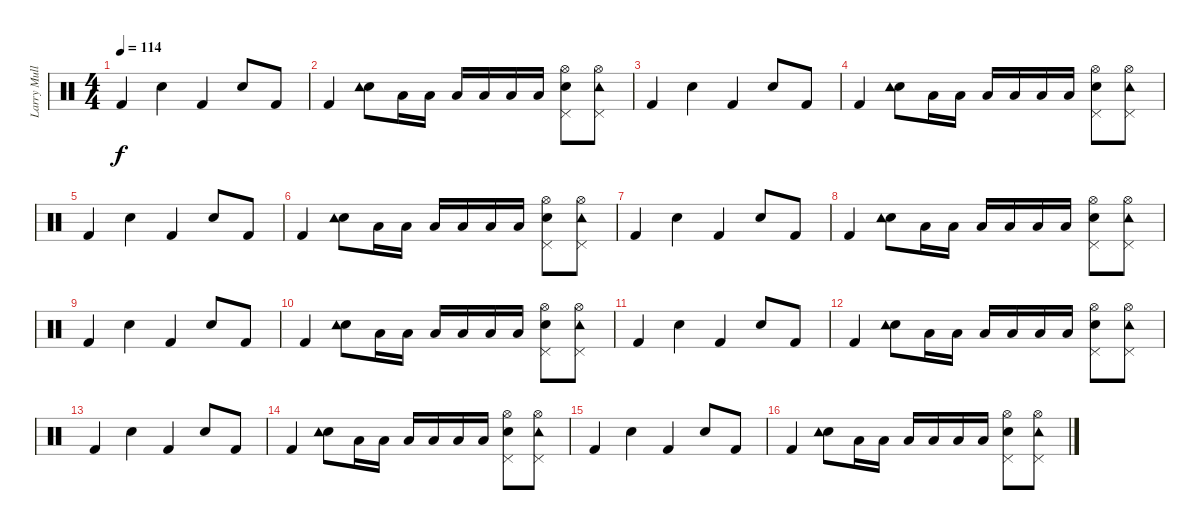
\track ("Larry Mullen Jr Drums" "Larry Mull") {instrument percussion}
\staff {score}
\articulation defaults
\ts (4 4)
\tempo 114
\clef neutral
\ks c "Kick (hit) 2".4{dy f} "Snare (hit) 2".4 "Kick (hit) 2".4 "Snare (hit) 2".8 "Kick (hit) 2".8
|
"Kick (hit) 2".4 ("Snare (hit) 2" "Tambourine (hit)").8 "Low Tom (hit)".16 "Low Tom (hit)".16 "Low Tom (hit)".16 "Low Tom (hit)".16 "Low Tom (hit)".16 "Low Tom (hit)".16 ("Snare (hit) 2" "Pedal Hi-Hat (hit)" "Hi-Hat (open)").8 ("Hi-Hat (open)" "Pedal Hi-Hat (hit)" "Tambourine (hit)").8 |
"Kick (hit) 2".4 "Snare (hit) 2".4 "Kick (hit) 2".4 "Snare (hit) 2".8 "Kick (hit) 2".8 |
"Kick (hit) 2".4 ("Snare (hit) 2" "Tambourine (hit)").8 "Low Tom (hit)".16 "Low Tom (hit)".16 "Low Tom (hit)".16 "Low Tom (hit)".16 "Low Tom (hit)".16 "Low Tom (hit)".16 ("Snare (hit) 2" "Pedal Hi-Hat (hit)" "Hi-Hat (open)").8 ("Hi-Hat (open)" "Pedal Hi-Hat (hit)" "Tambourine (hit)").8 |
"Kick (hit) 2".4 "Snare (hit) 2".4 "Kick (hit) 2".4 "Snare (hit) 2".8 "Kick (hit) 2".8 |
"Kick (hit) 2".4 ("Snare (hit) 2" "Tambourine (hit)").8 "Low Tom (hit)".16 "Low Tom (hit)".16 "Low Tom (hit)".16 "Low Tom (hit)".16 "Low Tom (hit)".16 "Low Tom (hit)".16 ("Snare (hit) 2" "Pedal Hi-Hat (hit)" "Hi-Hat (open)").8 ("Hi-Hat (open)" "Pedal Hi-Hat (hit)" "Tambourine (hit)").8 |
"Kick (hit) 2".4 "Snare (hit) 2".4 "Kick (hit) 2".4 "Snare (hit) 2".8 "Kick (hit) 2".8 |
"Kick (hit) 2".4 ("Snare (hit) 2" "Tambourine (hit)").8 "Low Tom (hit)".16 "Low Tom (hit)".16 "Low Tom (hit)".16 "Low Tom (hit)".16 "Low Tom (hit)".16 "Low Tom (hit)".16 ("Snare (hit) 2" "Pedal Hi-Hat (hit)" "Hi-Hat (open)").8 ("Hi-Hat (open)" "Pedal Hi-Hat (hit)" "Tambourine (hit)").8 |
"Kick (hit) 2".4 "Snare (hit) 2".4 "Kick (hit) 2".4 "Snare (hit) 2".8 "Kick (hit) 2".8 |
"Kick (hit) 2".4 ("Snare (hit) 2" "Tambourine (hit)").8 "Low Tom (hit)".16 "Low Tom (hit)".16 "Low Tom (hit)".16 "Low Tom (hit)".16 "Low Tom (hit)".16 "Low Tom (hit)".16 ("Snare (hit) 2" "Pedal Hi-Hat (hit)" "Hi-Hat (open)").8 ("Hi-Hat (open)" "Pedal Hi-Hat (hit)" "Tambourine (hit)").8 |
"Kick (hit) 2".4 "Snare (hit) 2".4 "Kick (hit) 2".4 "Snare (hit) 2".8 "Kick (hit) 2".8 |
"Kick (hit) 2".4 ("Snare (hit) 2" "Tambourine (hit)").8 "Low Tom (hit)".16 "Low Tom (hit)".16 "Low Tom (hit)".16 "Low Tom (hit)".16 "Low Tom (hit)".16 "Low Tom (hit)".16 ("Snare (hit) 2" "Pedal Hi-Hat (hit)" "Hi-Hat (open)").8 ("Hi-Hat (open)" "Pedal Hi-Hat (hit)" "Tambourine (hit)").8 |
"Kick (hit) 2".4 "Snare (hit) 2".4 "Kick (hit) 2".4 "Snare (hit) 2".8 "Kick (hit) 2".8 |
"Kick (hit) 2".4 ("Snare (hit) 2" "Tambourine (hit)").8 "Low Tom (hit)".16 "Low Tom (hit)".16 "Low Tom (hit)".16 "Low Tom (hit)".16 "Low Tom (hit)".16 "Low Tom (hit)".16 ("Snare (hit) 2" "Pedal Hi-Hat (hit)" "Hi-Hat (open)").8 ("Hi-Hat (open)" "Pedal Hi-Hat (hit)" "Tambourine (hit)").8 |
"Kick (hit) 2".4 "Snare (hit) 2".4 "Kick (hit) 2".4 "Snare (hit) 2".8 "Kick (hit) 2".8 |
"Kick (hit) 2".4 ("Snare (hit) 2" "Tambourine (hit)").8 "Low Tom (hit)".16 "Low Tom (hit)".16 "Low Tom (hit)".16 "Low Tom (hit)".16 "Low Tom (hit)".16 "Low Tom (hit)".16 ("Snare (hit) 2" "Pedal Hi-Hat (hit)" "Hi-Hat (open)").8 ("Hi-Hat (open)" "Pedal Hi-Hat (hit)" "Tambourine (hit)").8
